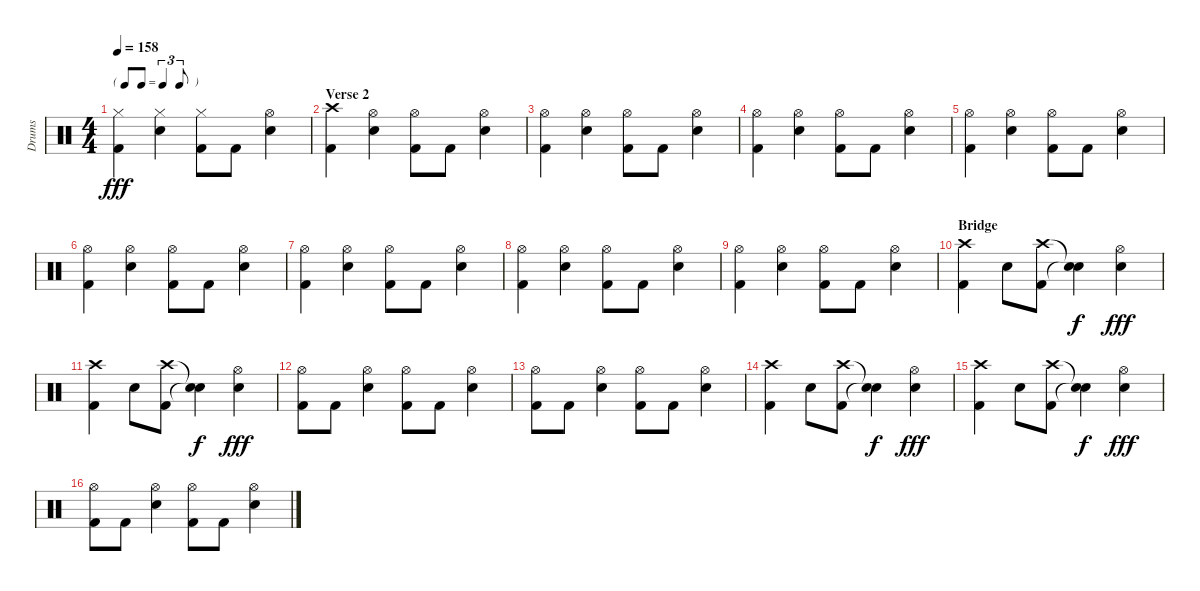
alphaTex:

\track ("Drums" "Drums") {instrument percussion}
\staff {score}
\articulation defaults
\ts (4 4)
\tf triplet8th
\tempo 158
\clef neutral
\ks c
("Hi-Hat (closed)" "Kick (hit) 2").4{dy fff} ("Hi-Hat (closed)" "Snare (hit) 2").4 ("Hi-Hat (closed)" "Kick (hit) 2").8 "Kick (hit) 2".8 ("Hi-Hat (open)" "Snare (hit) 2").4 |
\section ("" "Verse 2")
("Crash high (hit)" "Kick (hit) 2").4 ("Hi-Hat (open)" "Snare (hit) 2").4 ("Hi-Hat (open)" "Kick (hit) 2").8 "Kick (hit) 2".8 ("Hi-Hat (open)" "Snare (hit) 2").4 |
("Hi-Hat (open)" "Kick (hit) 2").4 ("Hi-Hat (open)" "Snare (hit) 2").4 ("Hi-Hat (open)" "Kick (hit) 2").8 "Kick (hit) 2".8 ("Hi-Hat (open)" "Snare (hit) 2").4 |
("Hi-Hat (open)" "Kick (hit) 2").4 ("Hi-Hat (open)" "Snare (hit) 2").4 ("Hi-Hat (open)" "Kick (hit) 2").8 "Kick (hit) 2".8 ("Hi-Hat (open)" "Snare (hit) 2").4 |
("Hi-Hat (open)" "Kick (hit) 2").4 ("Hi-Hat (open)" "Snare (hit) 2").4 ("Hi-Hat (open)" "Kick (hit) 2").8 "Kick (hit) 2".8 ("Hi-Hat (open)" "Snare (hit) 2").4 |
("Hi-Hat (open)" "Kick (hit) 2").4 ("Hi-Hat (open)" "Snare (hit) 2").4 ("Hi-Hat (open)" "Kick (hit) 2").8 "Kick (hit) 2".8 ("Hi-Hat (open)" "Snare (hit) 2").4 |
("Hi-Hat (open)" "Kick (hit) 2").4 ("Hi-Hat (open)" "Snare (hit) 2").4 ("Hi-Hat (open)" "Kick (hit) 2").8 "Kick (hit) 2".8 ("Hi-Hat (open)" "Snare (hit) 2").4 |
("Hi-Hat (open)" "Kick (hit) 2").4 ("Hi-Hat (open)" "Snare (hit) 2").4 ("Hi-Hat (open)" "Kick (hit) 2").8 "Kick (hit) 2".8 ("Hi-Hat (open)" "Snare (hit) 2").4 |
("Hi-Hat (open)" "Kick (hit) 2").4 ("Hi-Hat (open)" "Snare (hit) 2").4 ("Hi-Hat (open)" "Kick (hit) 2").8 "Kick (hit) 2".8 ("Hi-Hat (open)" "Snare (hit) 2").4 |
\section ("" "Bridge")
("Crash high (hit)" "Kick (hit) 2").4 "Snare (hit) 2".8 ("Crash high (hit)" "Kick (hit) 2").8 ("Snare (hit)"{t} "Snare (hit)"{t}).4{dy f} ("Hi-Hat (open)" "Snare (hit) 2").4{dy fff} |
("Crash high (hit)" "Kick (hit) 2").4 "Snare (hit) 2".8 ("Crash high (hit)" "Kick (hit) 2").8 ("Snare (hit)"{t} "Snare (hit)"{t}).4{dy f} ("Hi-Hat (open)" "Snare (hit) 2").4{dy fff} |
("Hi-Hat (open)" "Kick (hit) 2").8 "Kick (hit) 2".8 ("Hi-Hat (open)" "Snare (hit) 2").4 ("Hi-Hat (open)" "Kick (hit) 2").8 "Kick (hit) 2".8 ("Hi-Hat (open)" "Snare (hit) 2").4 |
("Hi-Hat (open)" "Kick (hit) 2").8 "Kick (hit) 2".8 ("Hi-Hat (open)" "Snare (hit) 2").4 ("Hi-Hat (open)" "Kick (hit) 2").8 "Kick (hit) 2".8 ("Hi-Hat (open)" "Snare (hit) 2").4 |
("Crash high (hit)" "Kick (hit) 2").4 "Snare (hit) 2".8 ("Crash high (hit)" "Kick (hit) 2").8 ("Snare (hit)"{t} "Snare (hit)"{t}).4{dy f} ("Hi-Hat (open)" "Snare (hit) 2").4{dy fff} |
("Crash high (hit)" "Kick (hit) 2").4 "Snare (hit) 2".8 ("Crash high (hit)" "Kick (hit) 2").8 ("Snare (hit)"{t} "Snare (hit)"{t}).4{dy f} ("Hi-Hat (open)" "Snare (hit) 2").4{dy fff} |
("Hi-Hat (open)" "Kick (hit) 2").8 "Kick (hit) 2".8 ("Hi-Hat (open)" "Snare (hit) 2").4 ("Hi-Hat (open)" "Kick (hit) 2").8 "Kick (hit) 2".8 ("Hi-Hat (open)" "Snare (hit) 2").4
